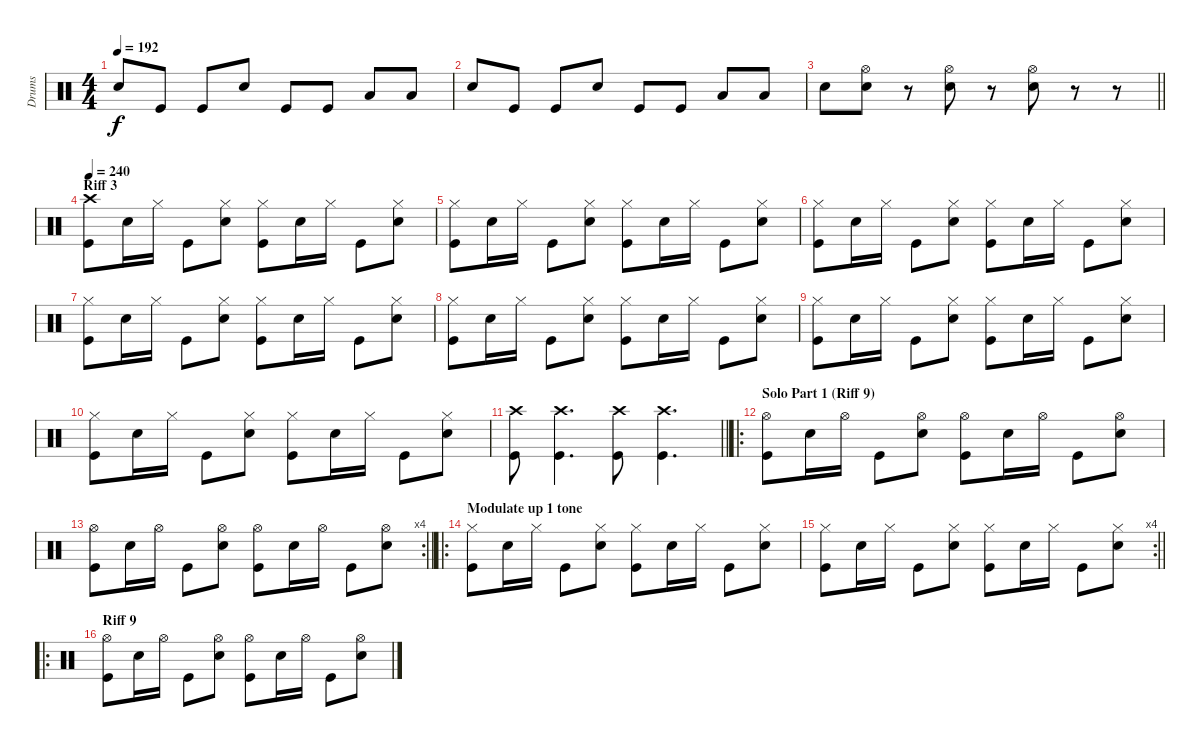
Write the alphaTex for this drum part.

\track ("Drums" "Drums") {instrument percussion}
\staff {score}
\articulation defaults
\ts (4 4)
\tempo 192
\clef neutral
\ks c "Snare (hit) 2".8{dy f} "Kick (hit)".8 "Kick (hit)".8 "Snare (hit) 2".8 "Kick (hit)".8 "Kick (hit)".8 "Low Floor Tom (hit)".8 "Low Floor Tom (hit)".8
|
"Snare (hit) 2".8 "Kick (hit)".8 "Kick (hit)".8 "Snare (hit) 2".8 "Kick (hit)".8 "Kick (hit)".8 "Low Floor Tom (hit)".8 "Low Floor Tom (hit)".8 |
\barLineRight lightlight "Snare (hit) 2".8
("Hi-Hat (open)" "Snare (hit) 2").8 r.8 ("Hi-Hat (open)" "Snare (hit) 2").8 r.8 ("Hi-Hat (open)" "Snare (hit) 2").8 r.8 r.8 |
\section ("" "Riff 3")
\tempo 240
("Crash high (hit)" "Kick (hit)").8 "Snare (hit) 2".16 "Hi-Hat (closed)".16 "Kick (hit)".8 ("Hi-Hat (closed)" "Snare (hit) 2").8 ("Hi-Hat (closed)" "Kick (hit)").8 "Snare (hit) 2".16 "Hi-Hat (closed)".16 "Kick (hit)".8 ("Hi-Hat (closed)" "Snare (hit) 2").8 |
("Hi-Hat (closed)" "Kick (hit)").8 "Snare (hit) 2".16 "Hi-Hat (closed)".16 "Kick (hit)".8 ("Hi-Hat (closed)" "Snare (hit) 2").8 ("Hi-Hat (closed)" "Kick (hit)").8 "Snare (hit) 2".16 "Hi-Hat (closed)".16 "Kick (hit)".8 ("Hi-Hat (closed)" "Snare (hit) 2").8 |
("Hi-Hat (closed)" "Kick (hit)").8 "Snare (hit) 2".16 "Hi-Hat (closed)".16 "Kick (hit)".8 ("Hi-Hat (closed)" "Snare (hit) 2").8 ("Hi-Hat (closed)" "Kick (hit)").8 "Snare (hit) 2".16 "Hi-Hat (closed)".16 "Kick (hit)".8 ("Hi-Hat (closed)" "Snare (hit) 2").8 |
("Hi-Hat (closed)" "Kick (hit)").8 "Snare (hit) 2".16 "Hi-Hat (closed)".16 "Kick (hit)".8 ("Hi-Hat (closed)" "Snare (hit) 2").8 ("Hi-Hat (closed)" "Kick (hit)").8 "Snare (hit) 2".16 "Hi-Hat (closed)".16 "Kick (hit)".8 ("Hi-Hat (closed)" "Snare (hit) 2").8 |
("Hi-Hat (closed)" "Kick (hit)").8 "Snare (hit) 2".16 "Hi-Hat (closed)".16 "Kick (hit)".8 ("Hi-Hat (closed)" "Snare (hit) 2").8 ("Hi-Hat (closed)" "Kick (hit)").8 "Snare (hit) 2".16 "Hi-Hat (closed)".16 "Kick (hit)".8 ("Hi-Hat (closed)" "Snare (hit) 2").8 |
("Hi-Hat (closed)" "Kick (hit)").8 "Snare (hit) 2".16 "Hi-Hat (closed)".16 "Kick (hit)".8 ("Hi-Hat (closed)" "Snare (hit) 2").8 ("Hi-Hat (closed)" "Kick (hit)").8 "Snare (hit) 2".16 "Hi-Hat (closed)".16 "Kick (hit)".8 ("Hi-Hat (closed)" "Snare (hit) 2").8 |
("Hi-Hat (closed)" "Kick (hit)").8 "Snare (hit) 2".16 "Hi-Hat (closed)".16 "Kick (hit)".8 ("Hi-Hat (closed)" "Snare (hit) 2").8 ("Hi-Hat (closed)" "Kick (hit)").8 "Snare (hit) 2".16 "Hi-Hat (closed)".16 "Kick (hit)".8 ("Hi-Hat (closed)" "Snare (hit) 2").8 |
\barLineRight lightlight
("Crash high (hit)" "Kick (hit)").8 ("Crash high (hit)" "Kick (hit)").4{d} ("Crash high (hit)" "Kick (hit)").8 ("Crash high (hit)" "Kick (hit)").4{d} |
\ro
\section ("" "Solo Part 1 (Riff 9)")
("Hi-Hat (open)" "Kick (hit)").8 "Snare (hit) 2".16 "Hi-Hat (open)".16 "Kick (hit)".8 ("Hi-Hat (open)" "Snare (hit) 2").8 ("Hi-Hat (open)" "Kick (hit)").8 "Snare (hit) 2".16 "Hi-Hat (open)".16 "Kick (hit)".8 ("Hi-Hat (open)" "Snare (hit) 2").8 |
\rc 4
\barLineRight lightlight
("Hi-Hat (open)" "Kick (hit)").8 "Snare (hit) 2".16 "Hi-Hat (open)".16 "Kick (hit)".8 ("Hi-Hat (open)" "Snare (hit) 2").8 ("Hi-Hat (open)" "Kick (hit)").8 "Snare (hit) 2".16 "Hi-Hat (open)".16 "Kick (hit)".8 ("Hi-Hat (open)" "Snare (hit) 2").8 |
\ro
\section ("" "Modulate up 1 tone")
("Hi-Hat (closed)" "Kick (hit)").8 "Snare (hit) 2".16 "Hi-Hat (closed)".16 "Kick (hit)".8 ("Hi-Hat (closed)" "Snare (hit) 2").8 ("Hi-Hat (closed)" "Kick (hit)").8 "Snare (hit) 2".16 "Hi-Hat (closed)".16 "Kick (hit)".8 ("Hi-Hat (closed)" "Snare (hit) 2").8 |
\rc 4
\barLineRight lightlight
("Hi-Hat (closed)" "Kick (hit)").8 "Snare (hit) 2".16 "Hi-Hat (closed)".16 "Kick (hit)".8 ("Hi-Hat (closed)" "Snare (hit) 2").8 ("Hi-Hat (closed)" "Kick (hit)").8 "Snare (hit) 2".16 "Hi-Hat (closed)".16 "Kick (hit)".8 ("Hi-Hat (closed)" "Snare (hit) 2").8 |
\ro
\section ("" "Riff 9")
("Hi-Hat (open)" "Kick (hit)").8 "Snare (hit) 2".16 "Hi-Hat (open)".16 "Kick (hit)".8 ("Hi-Hat (open)" "Snare (hit) 2").8 ("Hi-Hat (open)" "Kick (hit)").8 "Snare (hit) 2".16 "Hi-Hat (open)".16 "Kick (hit)".8 ("Hi-Hat (open)" "Snare (hit) 2").8
